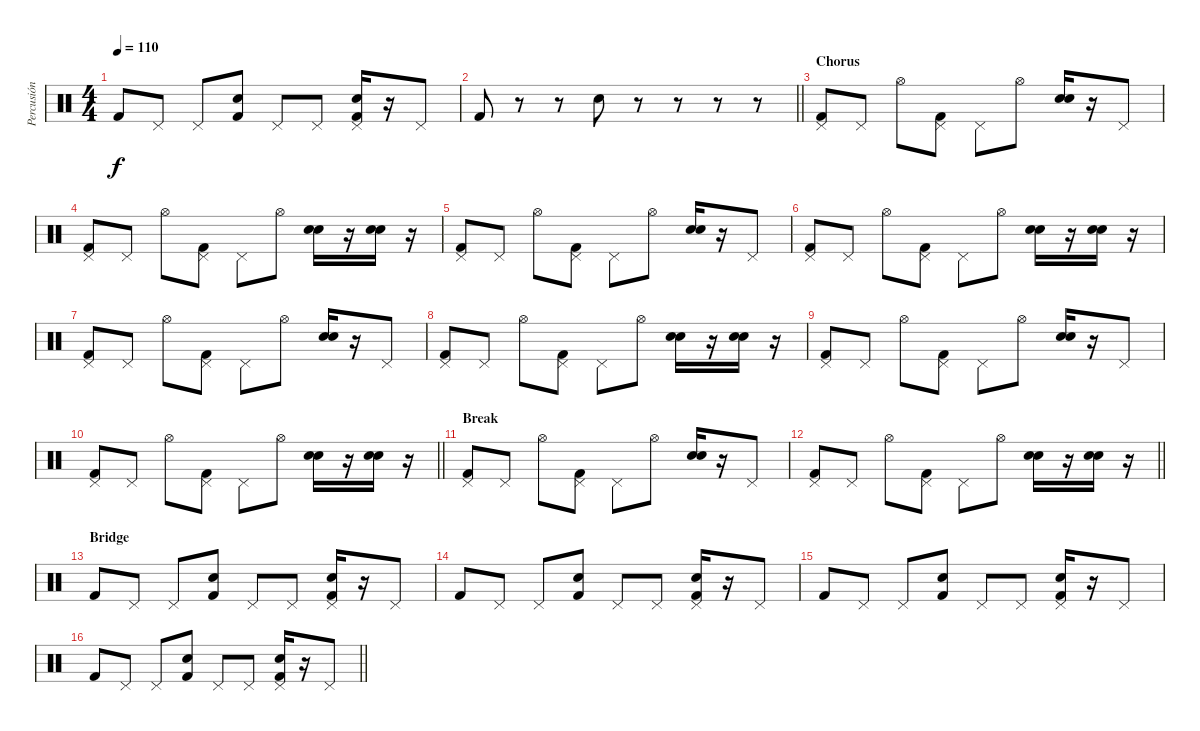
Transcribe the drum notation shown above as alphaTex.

\track ("Percusión" "Percusión") {instrument percussion}
\staff {score}
\articulation defaults
\ts (4 4)
\tempo 110
\clef neutral
\ks c "Kick (hit) 2".8{dy f} "Pedal Hi-Hat (hit)".8 "Pedal Hi-Hat (hit)".8
("Electric Snare (hit)" "Kick (hit) 2").8 "Pedal Hi-Hat (hit)".8 "Pedal Hi-Hat (hit)".8 ("Hand Clap (hit)" "Pedal Hi-Hat (hit)" "Kick (hit) 2").16{bd 60} r.16 "Pedal Hi-Hat (hit)".8 |
\barLineRight lightlight "Kick (hit) 2".8
r.8 r.8 "Electric Snare (hit)".8 r.8 r.8 r.8 r.8 |
\section ("" "Chorus")
("Pedal Hi-Hat (hit)" "Kick (hit) 2").8 "Pedal Hi-Hat (hit)".8 "Hi-Hat (open)".8 ("Pedal Hi-Hat (hit)" "Kick (hit) 2").8 "Pedal Hi-Hat (hit)".8 "Hi-Hat (open)".8 ("Hand Clap (hit)" "Electric Snare (hit)").16{bd 60} r.16 "Pedal Hi-Hat (hit)".8 |
("Pedal Hi-Hat (hit)" "Kick (hit) 2").8 "Pedal Hi-Hat (hit)".8 "Hi-Hat (open)".8 ("Pedal Hi-Hat (hit)" "Kick (hit) 2").8 "Pedal Hi-Hat (hit)".8 "Hi-Hat (open)".8 ("Hand Clap (hit)" "Electric Snare (hit)").16{bd 60} r.16 ("Hand Clap (hit)" "Electric Snare (hit)").16{bd 60} r.16 |
("Pedal Hi-Hat (hit)" "Kick (hit) 2").8 "Pedal Hi-Hat (hit)".8 "Hi-Hat (open)".8 ("Pedal Hi-Hat (hit)" "Kick (hit) 2").8 "Pedal Hi-Hat (hit)".8 "Hi-Hat (open)".8 ("Hand Clap (hit)" "Electric Snare (hit)").16{bd 60} r.16 "Pedal Hi-Hat (hit)".8 |
("Pedal Hi-Hat (hit)" "Kick (hit) 2").8 "Pedal Hi-Hat (hit)".8 "Hi-Hat (open)".8 ("Pedal Hi-Hat (hit)" "Kick (hit) 2").8 "Pedal Hi-Hat (hit)".8 "Hi-Hat (open)".8 ("Hand Clap (hit)" "Electric Snare (hit)").16{bd 60} r.16 ("Hand Clap (hit)" "Electric Snare (hit)").16{bd 60} r.16 |
("Pedal Hi-Hat (hit)" "Kick (hit) 2").8 "Pedal Hi-Hat (hit)".8 "Hi-Hat (open)".8 ("Pedal Hi-Hat (hit)" "Kick (hit) 2").8 "Pedal Hi-Hat (hit)".8 "Hi-Hat (open)".8 ("Hand Clap (hit)" "Electric Snare (hit)").16{bd 60} r.16 "Pedal Hi-Hat (hit)".8 |
("Pedal Hi-Hat (hit)" "Kick (hit) 2").8 "Pedal Hi-Hat (hit)".8 "Hi-Hat (open)".8 ("Pedal Hi-Hat (hit)" "Kick (hit) 2").8 "Pedal Hi-Hat (hit)".8 "Hi-Hat (open)".8 ("Hand Clap (hit)" "Electric Snare (hit)").16{bd 60} r.16 ("Hand Clap (hit)" "Electric Snare (hit)").16{bd 60} r.16 |
("Pedal Hi-Hat (hit)" "Kick (hit) 2").8 "Pedal Hi-Hat (hit)".8 "Hi-Hat (open)".8 ("Pedal Hi-Hat (hit)" "Kick (hit) 2").8 "Pedal Hi-Hat (hit)".8 "Hi-Hat (open)".8 ("Hand Clap (hit)" "Electric Snare (hit)").16{bd 60} r.16 "Pedal Hi-Hat (hit)".8 |
\barLineRight lightlight
("Pedal Hi-Hat (hit)" "Kick (hit) 2").8 "Pedal Hi-Hat (hit)".8 "Hi-Hat (open)".8 ("Pedal Hi-Hat (hit)" "Kick (hit) 2").8 "Pedal Hi-Hat (hit)".8 "Hi-Hat (open)".8 ("Hand Clap (hit)" "Electric Snare (hit)").16{bd 60} r.16 ("Hand Clap (hit)" "Electric Snare (hit)").16{bd 60} r.16 |
\section ("" "Break")
("Pedal Hi-Hat (hit)" "Kick (hit) 2").8 "Pedal Hi-Hat (hit)".8 "Hi-Hat (open)".8 ("Pedal Hi-Hat (hit)" "Kick (hit) 2").8 "Pedal Hi-Hat (hit)".8 "Hi-Hat (open)".8 ("Hand Clap (hit)" "Electric Snare (hit)").16{bd 60} r.16 "Pedal Hi-Hat (hit)".8 |
\barLineRight lightlight
("Pedal Hi-Hat (hit)" "Kick (hit) 2").8 "Pedal Hi-Hat (hit)".8 "Hi-Hat (open)".8 ("Pedal Hi-Hat (hit)" "Kick (hit) 2").8 "Pedal Hi-Hat (hit)".8 "Hi-Hat (open)".8 ("Hand Clap (hit)" "Electric Snare (hit)").16{bd 60} r.16 ("Hand Clap (hit)" "Electric Snare (hit)").16{bd 60} r.16 |
\section ("" "Bridge")
"Kick (hit) 2".8 "Pedal Hi-Hat (hit)".8 "Pedal Hi-Hat (hit)".8 ("Electric Snare (hit)" "Kick (hit) 2").8 "Pedal Hi-Hat (hit)".8 "Pedal Hi-Hat (hit)".8 ("Hand Clap (hit)" "Pedal Hi-Hat (hit)" "Kick (hit) 2").16{bd 60} r.16 "Pedal Hi-Hat (hit)".8 |
"Kick (hit) 2".8 "Pedal Hi-Hat (hit)".8 "Pedal Hi-Hat (hit)".8 ("Electric Snare (hit)" "Kick (hit) 2").8 "Pedal Hi-Hat (hit)".8 "Pedal Hi-Hat (hit)".8 ("Hand Clap (hit)" "Pedal Hi-Hat (hit)" "Kick (hit) 2").16{bd 60} r.16 "Pedal Hi-Hat (hit)".8 |
"Kick (hit) 2".8 "Pedal Hi-Hat (hit)".8 "Pedal Hi-Hat (hit)".8 ("Electric Snare (hit)" "Kick (hit) 2").8 "Pedal Hi-Hat (hit)".8 "Pedal Hi-Hat (hit)".8 ("Hand Clap (hit)" "Pedal Hi-Hat (hit)" "Kick (hit) 2").16{bd 60} r.16 "Pedal Hi-Hat (hit)".8 |
\barLineRight lightlight "Kick (hit) 2".8 "Pedal Hi-Hat (hit)".8 "Pedal Hi-Hat (hit)".8
("Electric Snare (hit)" "Kick (hit) 2").8 "Pedal Hi-Hat (hit)".8 "Pedal Hi-Hat (hit)".8 ("Hand Clap (hit)" "Pedal Hi-Hat (hit)" "Kick (hit) 2").16{bd 60} r.16 "Pedal Hi-Hat (hit)".8
